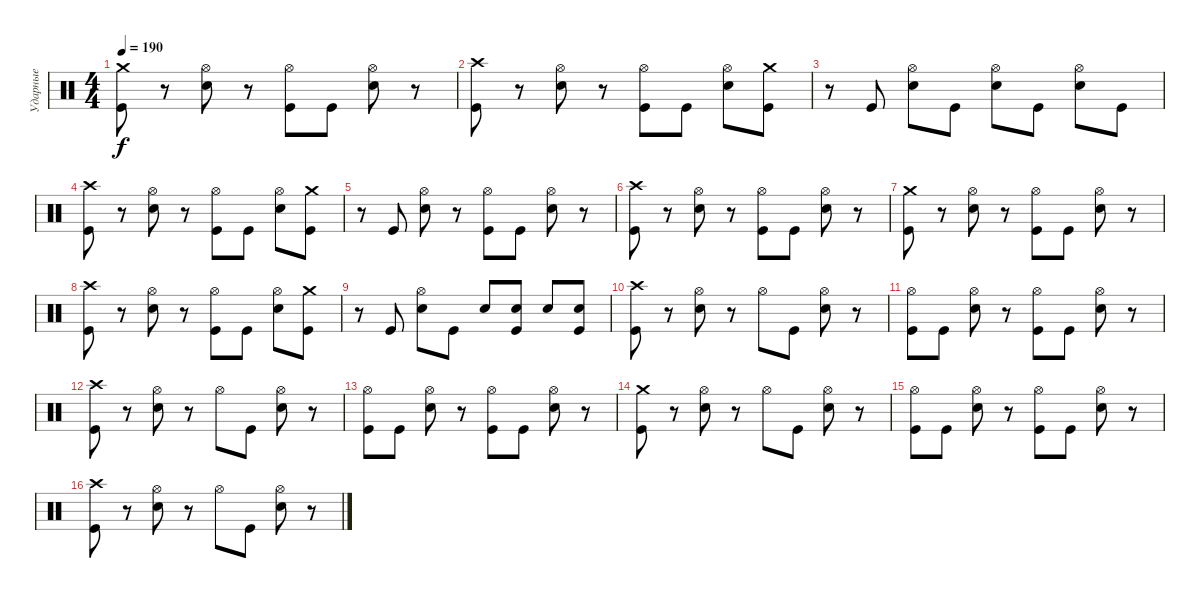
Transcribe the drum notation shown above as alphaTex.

\track ("Ударные" "Ударные") {instrument percussion}
\staff {score}
\articulation defaults
\ts (4 4)
\tempo 190
\clef neutral
\ks c
("Kick (hit)" "Crash medium (hit)").8{dy f} r.8 ("Snare (hit) 2" "Hi-Hat (open)").8 r.8 ("Kick (hit)" "Hi-Hat (open)").8 "Kick (hit)".8 ("Snare (hit) 2" "Hi-Hat (open)").8 r.8 |
("Kick (hit)" "Crash high (hit)").8 r.8 ("Snare (hit) 2" "Hi-Hat (open)").8 r.8 ("Kick (hit)" "Hi-Hat (open)").8 "Kick (hit)".8 ("Snare (hit) 2" "Hi-Hat (open)").8 ("Kick (hit)" "Crash medium (hit)").8 |
r.8 "Kick (hit)".8 ("Snare (hit) 2" "Hi-Hat (open)").8 "Kick (hit)".8 ("Snare (hit) 2" "Hi-Hat (open)").8 "Kick (hit)".8 ("Snare (hit) 2" "Hi-Hat (open)").8 "Kick (hit)".8 |
("Kick (hit)" "Crash high (hit)").8 r.8 ("Snare (hit) 2" "Hi-Hat (open)").8 r.8 ("Kick (hit)" "Hi-Hat (open)").8 "Kick (hit)".8 ("Snare (hit) 2" "Hi-Hat (open)").8 ("Kick (hit)" "Crash medium (hit)").8 |
r.8 "Kick (hit)".8 ("Snare (hit) 2" "Hi-Hat (open)").8 r.8 ("Kick (hit)" "Hi-Hat (open)").8 "Kick (hit)".8 ("Snare (hit) 2" "Hi-Hat (open)").8 r.8 |
("Kick (hit)" "Crash high (hit)").8 r.8 ("Snare (hit) 2" "Hi-Hat (open)").8 r.8 ("Kick (hit)" "Hi-Hat (open)").8 "Kick (hit)".8 ("Snare (hit) 2" "Hi-Hat (open)").8 r.8 |
("Kick (hit)" "Crash medium (hit)").8 r.8 ("Snare (hit) 2" "Hi-Hat (open)").8 r.8 ("Kick (hit)" "Hi-Hat (open)").8 "Kick (hit)".8 ("Snare (hit) 2" "Hi-Hat (open)").8 r.8 |
("Kick (hit)" "Crash high (hit)").8 r.8 ("Snare (hit) 2" "Hi-Hat (open)").8 r.8 ("Kick (hit)" "Hi-Hat (open)").8 "Kick (hit)".8 ("Snare (hit) 2" "Hi-Hat (open)").8 ("Kick (hit)" "Crash medium (hit)").8 |
r.8 "Kick (hit)".8 ("Snare (hit) 2" "Hi-Hat (open)").8 "Kick (hit)".8 "Snare (hit) 2".8 ("Kick (hit)" "Snare (hit) 2").8 "Snare (hit) 2".8 ("Kick (hit)" "Snare (hit) 2").8 |
("Kick (hit)" "Crash high (hit)").8 r.8 ("Snare (hit) 2" "Hi-Hat (open)").8 r.8 "Hi-Hat (open)".8 "Kick (hit)".8 ("Snare (hit) 2" "Hi-Hat (open)").8 r.8 |
("Kick (hit)" "Hi-Hat (open)").8 "Kick (hit)".8 ("Snare (hit) 2" "Hi-Hat (open)").8 r.8 ("Kick (hit)" "Hi-Hat (open)").8 "Kick (hit)".8 ("Snare (hit) 2" "Hi-Hat (open)").8 r.8 |
("Kick (hit)" "Crash high (hit)").8 r.8 ("Snare (hit) 2" "Hi-Hat (open)").8 r.8 "Hi-Hat (open)".8 "Kick (hit)".8 ("Snare (hit) 2" "Hi-Hat (open)").8 r.8 |
("Kick (hit)" "Hi-Hat (open)").8 "Kick (hit)".8 ("Snare (hit) 2" "Hi-Hat (open)").8 r.8 ("Kick (hit)" "Hi-Hat (open)").8 "Kick (hit)".8 ("Snare (hit) 2" "Hi-Hat (open)").8 r.8 |
("Kick (hit)" "Crash medium (hit)").8 r.8 ("Snare (hit) 2" "Hi-Hat (open)").8 r.8 "Hi-Hat (open)".8 "Kick (hit)".8 ("Snare (hit) 2" "Hi-Hat (open)").8 r.8 |
("Kick (hit)" "Hi-Hat (open)").8 "Kick (hit)".8 ("Snare (hit) 2" "Hi-Hat (open)").8 r.8 ("Kick (hit)" "Hi-Hat (open)").8 "Kick (hit)".8 ("Snare (hit) 2" "Hi-Hat (open)").8 r.8 |
("Kick (hit)" "Crash high (hit)").8 r.8 ("Snare (hit) 2" "Hi-Hat (open)").8 r.8 "Hi-Hat (open)".8 "Kick (hit)".8 ("Snare (hit) 2" "Hi-Hat (open)").8 r.8
